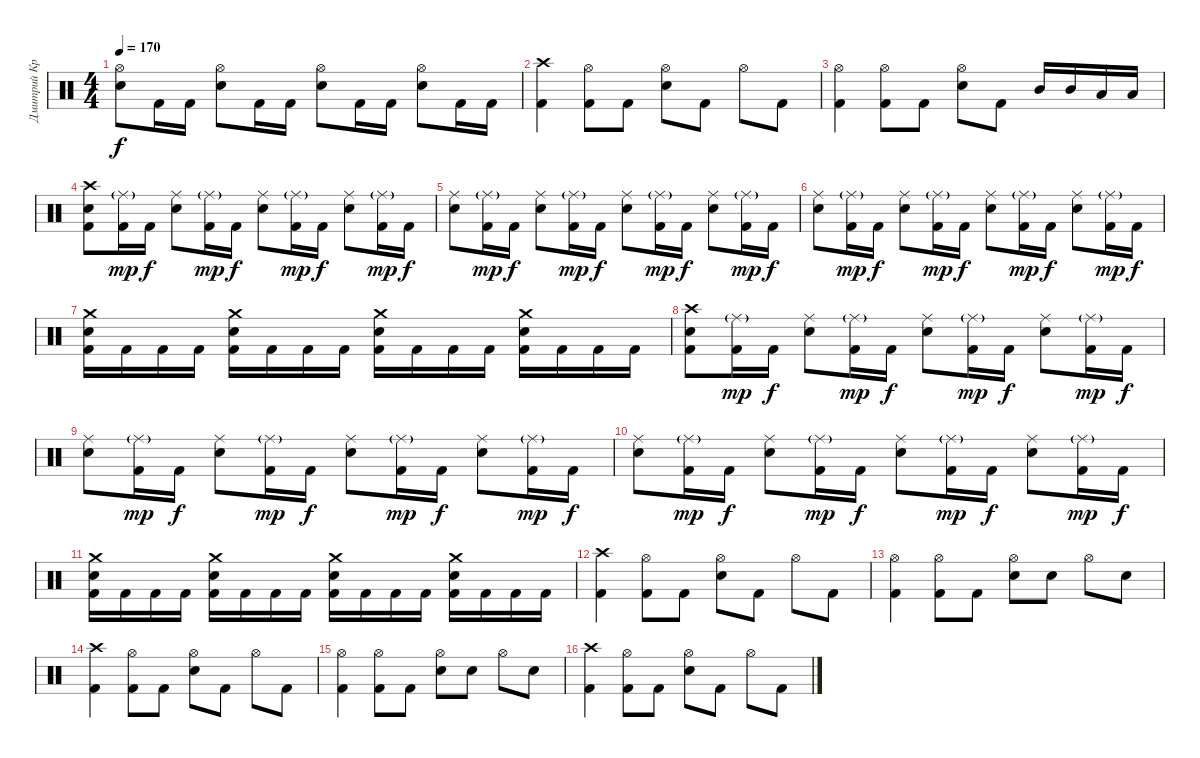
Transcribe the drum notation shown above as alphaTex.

\track ("Дмитрий Кривенков" "Дмитрий Кр") {instrument percussion}
\staff {score}
\articulation defaults
\ts (4 4)
\tempo 170
\clef neutral
\ks c
("Hi-Hat (open)" "Electric Snare (hit)").8{dy f} "Kick (hit) 2".16 "Kick (hit) 2".16 ("Hi-Hat (open)" "Electric Snare (hit)").8 "Kick (hit) 2".16 "Kick (hit) 2".16 ("Hi-Hat (open)" "Electric Snare (hit)").8 "Kick (hit) 2".16 "Kick (hit) 2".16 ("Hi-Hat (open)" "Electric Snare (hit)").8 "Kick (hit) 2".16 "Kick (hit) 2".16 |
("Crash high (hit)" "Kick (hit) 2").4 ("Hi-Hat (open)" "Kick (hit) 2").8 "Kick (hit) 2".8 ("Hi-Hat (open)" "Electric Snare (hit)").8 "Kick (hit) 2".8 "Hi-Hat (open)".8 "Kick (hit) 2".8 |
("Hi-Hat (open)" "Kick (hit) 2").4 ("Hi-Hat (open)" "Kick (hit) 2").8 "Kick (hit) 2".8 ("Hi-Hat (open)" "Electric Snare (hit)").8 "Kick (hit) 2".8 "Mid Tom (hit)".16 "Mid Tom (hit)".16 "Low Tom (hit)".16 "Low Tom (hit)".16 |
("Crash high (hit)" "Electric Snare (hit)" "Kick (hit) 2").8 ("Ride (middle)"{g} "Kick (hit) 2").16{dy mp} "Kick (hit) 2".16{dy f} ("Ride (middle)" "Electric Snare (hit)").8 ("Ride (middle)"{g} "Kick (hit) 2").16{dy mp} "Kick (hit) 2".16{dy f} ("Ride (middle)" "Electric Snare (hit)").8 ("Ride (middle)"{g} "Kick (hit) 2").16{dy mp} "Kick (hit) 2".16{dy f} ("Ride (middle)" "Electric Snare (hit)").8 ("Ride (middle)"{g} "Kick (hit) 2").16{dy mp} "Kick (hit) 2".16{dy f} |
("Ride (middle)" "Electric Snare (hit)").8 ("Ride (middle)"{g} "Kick (hit) 2").16{dy mp} "Kick (hit) 2".16{dy f} ("Ride (middle)" "Electric Snare (hit)").8 ("Ride (middle)"{g} "Kick (hit) 2").16{dy mp} "Kick (hit) 2".16{dy f} ("Ride (middle)" "Electric Snare (hit)").8 ("Ride (middle)"{g} "Kick (hit) 2").16{dy mp} "Kick (hit) 2".16{dy f} ("Ride (middle)" "Electric Snare (hit)").8 ("Ride (middle)"{g} "Kick (hit) 2").16{dy mp} "Kick (hit) 2".16{dy f} |
("Ride (middle)" "Electric Snare (hit)").8 ("Ride (middle)"{g} "Kick (hit) 2").16{dy mp} "Kick (hit) 2".16{dy f} ("Ride (middle)" "Electric Snare (hit)").8 ("Ride (middle)"{g} "Kick (hit) 2").16{dy mp} "Kick (hit) 2".16{dy f} ("Ride (middle)" "Electric Snare (hit)").8 ("Ride (middle)"{g} "Kick (hit) 2").16{dy mp} "Kick (hit) 2".16{dy f} ("Ride (middle)" "Electric Snare (hit)").8 ("Ride (middle)"{g} "Kick (hit) 2").16{dy mp} "Kick (hit) 2".16{dy f} |
("Crash medium (hit)" "Electric Snare (hit)" "Kick (hit) 2").16 "Kick (hit) 2".16 "Kick (hit) 2".16 "Kick (hit) 2".16 ("Crash medium (hit)" "Electric Snare (hit)" "Kick (hit) 2").16 "Kick (hit) 2".16 "Kick (hit) 2".16 "Kick (hit) 2".16 ("Crash medium (hit)" "Electric Snare (hit)" "Kick (hit) 2").16 "Kick (hit) 2".16 "Kick (hit) 2".16 "Kick (hit) 2".16 ("Crash medium (hit)" "Electric Snare (hit)" "Kick (hit) 2").16 "Kick (hit) 2".16 "Kick (hit) 2".16 "Kick (hit) 2".16 |
("Crash high (hit)" "Electric Snare (hit)" "Kick (hit) 2").8 ("Ride (middle)"{g} "Kick (hit) 2").16{dy mp} "Kick (hit) 2".16{dy f} ("Ride (middle)" "Electric Snare (hit)").8 ("Ride (middle)"{g} "Kick (hit) 2").16{dy mp} "Kick (hit) 2".16{dy f} ("Ride (middle)" "Electric Snare (hit)").8 ("Ride (middle)"{g} "Kick (hit) 2").16{dy mp} "Kick (hit) 2".16{dy f} ("Ride (middle)" "Electric Snare (hit)").8 ("Ride (middle)"{g} "Kick (hit) 2").16{dy mp} "Kick (hit) 2".16{dy f} |
("Ride (middle)" "Electric Snare (hit)").8 ("Ride (middle)"{g} "Kick (hit) 2").16{dy mp} "Kick (hit) 2".16{dy f} ("Ride (middle)" "Electric Snare (hit)").8 ("Ride (middle)"{g} "Kick (hit) 2").16{dy mp} "Kick (hit) 2".16{dy f} ("Ride (middle)" "Electric Snare (hit)").8 ("Ride (middle)"{g} "Kick (hit) 2").16{dy mp} "Kick (hit) 2".16{dy f} ("Ride (middle)" "Electric Snare (hit)").8 ("Ride (middle)"{g} "Kick (hit) 2").16{dy mp} "Kick (hit) 2".16{dy f} |
("Ride (middle)" "Electric Snare (hit)").8 ("Ride (middle)"{g} "Kick (hit) 2").16{dy mp} "Kick (hit) 2".16{dy f} ("Ride (middle)" "Electric Snare (hit)").8 ("Ride (middle)"{g} "Kick (hit) 2").16{dy mp} "Kick (hit) 2".16{dy f} ("Ride (middle)" "Electric Snare (hit)").8 ("Ride (middle)"{g} "Kick (hit) 2").16{dy mp} "Kick (hit) 2".16{dy f} ("Ride (middle)" "Electric Snare (hit)").8 ("Ride (middle)"{g} "Kick (hit) 2").16{dy mp} "Kick (hit) 2".16{dy f} |
("Crash medium (hit)" "Electric Snare (hit)" "Kick (hit) 2").16 "Kick (hit) 2".16 "Kick (hit) 2".16 "Kick (hit) 2".16 ("Crash medium (hit)" "Electric Snare (hit)" "Kick (hit) 2").16 "Kick (hit) 2".16 "Kick (hit) 2".16 "Kick (hit) 2".16 ("Crash medium (hit)" "Electric Snare (hit)" "Kick (hit) 2").16 "Kick (hit) 2".16 "Kick (hit) 2".16 "Kick (hit) 2".16 ("Crash medium (hit)" "Electric Snare (hit)" "Kick (hit) 2").16 "Kick (hit) 2".16 "Kick (hit) 2".16 "Kick (hit) 2".16 |
("Crash high (hit)" "Kick (hit) 2").4 ("Hi-Hat (open)" "Kick (hit) 2").8 "Kick (hit) 2".8 ("Hi-Hat (open)" "Electric Snare (hit)").8 "Kick (hit) 2".8 "Hi-Hat (open)".8 "Kick (hit) 2".8 |
("Hi-Hat (open)" "Kick (hit) 2").4 ("Hi-Hat (open)" "Kick (hit) 2").8 "Kick (hit) 2".8 ("Hi-Hat (open)" "Electric Snare (hit)").8 "Electric Snare (hit)".8 "Hi-Hat (open)".8 "Electric Snare (hit)".8 |
("Crash high (hit)" "Kick (hit) 2").4 ("Hi-Hat (open)" "Kick (hit) 2").8 "Kick (hit) 2".8 ("Hi-Hat (open)" "Electric Snare (hit)").8 "Kick (hit) 2".8 "Hi-Hat (open)".8 "Kick (hit) 2".8 |
("Hi-Hat (open)" "Kick (hit) 2").4 ("Hi-Hat (open)" "Kick (hit) 2").8 "Kick (hit) 2".8 ("Hi-Hat (open)" "Electric Snare (hit)").8 "Electric Snare (hit)".8 "Hi-Hat (open)".8 "Electric Snare (hit)".8 |
("Crash high (hit)" "Kick (hit) 2").4 ("Hi-Hat (open)" "Kick (hit) 2").8 "Kick (hit) 2".8 ("Hi-Hat (open)" "Electric Snare (hit)").8 "Kick (hit) 2".8 "Hi-Hat (open)".8 "Kick (hit) 2".8
